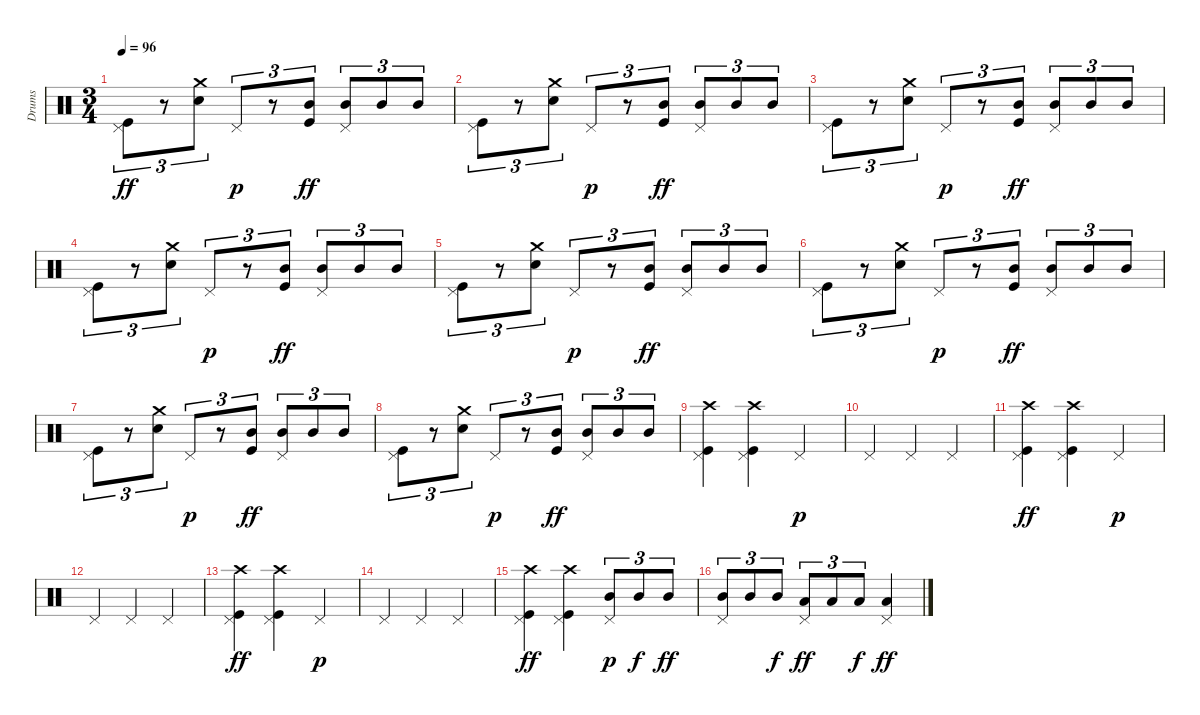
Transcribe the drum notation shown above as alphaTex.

\track ("Drums" "Drums") {instrument percussion}
\staff {score}
\articulation defaults
\ts (3 4)
\tempo 96
\tempo 128
\tempo 96
\clef neutral
\ks c
("Pedal Hi-Hat (hit)" "Kick (hit)").8{tu (3 2) dy ff} r.8{tu (3 2)} ("Crash medium (hit)" "Snare (hit) 2").8{tu (3 2)} "Pedal Hi-Hat (hit)".8{tu (3 2) dy p} r.8{tu (3 2)} ("Mid Tom (hit)" "Kick (hit)").8{tu (3 2) dy ff} ("Pedal Hi-Hat (hit)" "Mid Tom (hit)").8{tu (3 2)} "Mid Tom (hit)".8{tu (3 2)} "Mid Tom (hit)".8{tu (3 2)} |
("Pedal Hi-Hat (hit)" "Kick (hit)").8{tu (3 2)} r.8{tu (3 2)} ("Crash medium (hit)" "Snare (hit) 2").8{tu (3 2)} "Pedal Hi-Hat (hit)".8{tu (3 2) dy p} r.8{tu (3 2)} ("Mid Tom (hit)" "Kick (hit)").8{tu (3 2) dy ff} ("Pedal Hi-Hat (hit)" "Mid Tom (hit)").8{tu (3 2)} "Mid Tom (hit)".8{tu (3 2)} "Mid Tom (hit)".8{tu (3 2)} |
("Pedal Hi-Hat (hit)" "Kick (hit)").8{tu (3 2)} r.8{tu (3 2)} ("Crash medium (hit)" "Snare (hit) 2").8{tu (3 2)} "Pedal Hi-Hat (hit)".8{tu (3 2) dy p} r.8{tu (3 2)} ("Mid Tom (hit)" "Kick (hit)").8{tu (3 2) dy ff} ("Pedal Hi-Hat (hit)" "Mid Tom (hit)").8{tu (3 2)} "Mid Tom (hit)".8{tu (3 2)} "Mid Tom (hit)".8{tu (3 2)} |
("Pedal Hi-Hat (hit)" "Kick (hit)").8{tu (3 2)} r.8{tu (3 2)} ("Crash medium (hit)" "Snare (hit) 2").8{tu (3 2)} "Pedal Hi-Hat (hit)".8{tu (3 2) dy p} r.8{tu (3 2)} ("Mid Tom (hit)" "Kick (hit)").8{tu (3 2) dy ff} ("Pedal Hi-Hat (hit)" "Mid Tom (hit)").8{tu (3 2)} "Mid Tom (hit)".8{tu (3 2)} "Mid Tom (hit)".8{tu (3 2)} |
("Pedal Hi-Hat (hit)" "Kick (hit)").8{tu (3 2)} r.8{tu (3 2)} ("Crash medium (hit)" "Snare (hit) 2").8{tu (3 2)} "Pedal Hi-Hat (hit)".8{tu (3 2) dy p} r.8{tu (3 2)} ("Mid Tom (hit)" "Kick (hit)").8{tu (3 2) dy ff} ("Pedal Hi-Hat (hit)" "Mid Tom (hit)").8{tu (3 2)} "Mid Tom (hit)".8{tu (3 2)} "Mid Tom (hit)".8{tu (3 2)} |
("Pedal Hi-Hat (hit)" "Kick (hit)").8{tu (3 2)} r.8{tu (3 2)} ("Crash medium (hit)" "Snare (hit) 2").8{tu (3 2)} "Pedal Hi-Hat (hit)".8{tu (3 2) dy p} r.8{tu (3 2)} ("Mid Tom (hit)" "Kick (hit)").8{tu (3 2) dy ff} ("Pedal Hi-Hat (hit)" "Mid Tom (hit)").8{tu (3 2)} "Mid Tom (hit)".8{tu (3 2)} "Mid Tom (hit)".8{tu (3 2)} |
("Pedal Hi-Hat (hit)" "Kick (hit)").8{tu (3 2)} r.8{tu (3 2)} ("Crash medium (hit)" "Snare (hit) 2").8{tu (3 2)} "Pedal Hi-Hat (hit)".8{tu (3 2) dy p} r.8{tu (3 2)} ("Mid Tom (hit)" "Kick (hit)").8{tu (3 2) dy ff} ("Pedal Hi-Hat (hit)" "Mid Tom (hit)").8{tu (3 2)} "Mid Tom (hit)".8{tu (3 2)} "Mid Tom (hit)".8{tu (3 2)} |
("Pedal Hi-Hat (hit)" "Kick (hit)").8{tu (3 2)} r.8{tu (3 2)} ("Crash medium (hit)" "Snare (hit) 2").8{tu (3 2)} "Pedal Hi-Hat (hit)".8{tu (3 2) dy p} r.8{tu (3 2)} ("Mid Tom (hit)" "Kick (hit)").8{tu (3 2) dy ff} ("Pedal Hi-Hat (hit)" "Mid Tom (hit)").8{tu (3 2)} "Mid Tom (hit)".8{tu (3 2)} "Mid Tom (hit)".8{tu (3 2)} |
("Crash high (hit)" "Pedal Hi-Hat (hit)" "Kick (hit)").4 ("Crash high (hit)" "Pedal Hi-Hat (hit)" "Kick (hit)").4 "Pedal Hi-Hat (hit)".4{dy p} |
"Pedal Hi-Hat (hit)".4 "Pedal Hi-Hat (hit)".4 "Pedal Hi-Hat (hit)".4 |
("Crash high (hit)" "Pedal Hi-Hat (hit)" "Kick (hit)").4{dy ff} ("Crash high (hit)" "Pedal Hi-Hat (hit)" "Kick (hit)").4 "Pedal Hi-Hat (hit)".4{dy p} |
"Pedal Hi-Hat (hit)".4 "Pedal Hi-Hat (hit)".4 "Pedal Hi-Hat (hit)".4 |
("Crash high (hit)" "Pedal Hi-Hat (hit)" "Kick (hit)").4{dy ff} ("Crash high (hit)" "Pedal Hi-Hat (hit)" "Kick (hit)").4 "Pedal Hi-Hat (hit)".4{dy p} |
"Pedal Hi-Hat (hit)".4 "Pedal Hi-Hat (hit)".4 "Pedal Hi-Hat (hit)".4 |
("Crash high (hit)" "Pedal Hi-Hat (hit)" "Kick (hit)").4{dy ff} ("Crash high (hit)" "Pedal Hi-Hat (hit)" "Kick (hit)").4 ("Pedal Hi-Hat (hit)" "Mid Tom (hit)").8{tu (3 2) dy p} "Mid Tom (hit)".8{tu (3 2) dy f} "Mid Tom (hit)".8{tu (3 2) dy ff} |
("Pedal Hi-Hat (hit)" "Mid Tom (hit)").8{tu (3 2)} "Mid Tom (hit)".8{tu (3 2)} "Mid Tom (hit)".8{tu (3 2) dy f} ("Pedal Hi-Hat (hit)" "Low Tom (hit)").8{tu (3 2) dy ff} "Low Tom (hit)".8{tu (3 2)} "Low Tom (hit)".8{tu (3 2) dy f} ("Pedal Hi-Hat (hit)" "Low Tom (hit)").4{dy ff}
